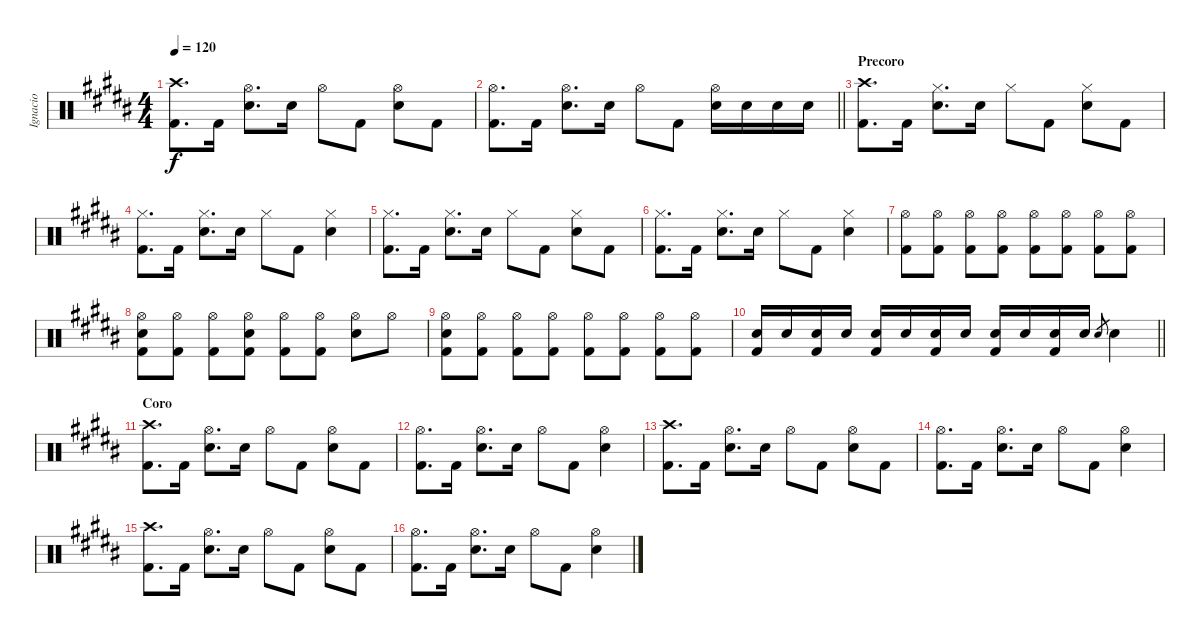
\track ("Ignacio" "Ignacio") {instrument percussion}
\staff {score}
\articulation defaults
\ts (4 4)
\tempo 120
\clef neutral
\ks b
("Crash high (hit)" "Kick (hit) 2").8{d dy f} "Kick (hit) 2".16 ("Hi-Hat (open)" "Snare (hit) 2").8{d} "Snare (hit) 2".16 "Hi-Hat (open)".8 "Kick (hit) 2".8 ("Hi-Hat (open)" "Snare (hit) 2").8 "Kick (hit) 2".8 |
\barLineRight lightlight
("Hi-Hat (open)" "Kick (hit) 2").8{d} "Kick (hit) 2".16 ("Hi-Hat (open)" "Snare (hit) 2").8{d} "Snare (hit) 2".16 "Hi-Hat (open)".8 "Kick (hit) 2".8 ("Hi-Hat (open)" "Snare (hit) 2").16 "Snare (hit) 2".16 "Snare (hit) 2".16 "Snare (hit) 2".16 |
\section ("" "Precoro")
("Crash high (hit)" "Kick (hit) 2").8{d} "Kick (hit) 2".16 ("Hi-Hat (closed)" "Snare (hit) 2").8{d} "Snare (hit) 2".16 "Hi-Hat (closed)".8 "Kick (hit) 2".8 ("Hi-Hat (closed)" "Snare (hit) 2").8 "Kick (hit) 2".8 |
("Hi-Hat (closed)" "Kick (hit) 2").8{d} "Kick (hit) 2".16 ("Hi-Hat (closed)" "Snare (hit) 2").8{d} "Snare (hit) 2".16 "Hi-Hat (closed)".8 "Kick (hit) 2".8 ("Hi-Hat (closed)" "Snare (hit) 2").4 |
("Hi-Hat (closed)" "Kick (hit) 2").8{d} "Kick (hit) 2".16 ("Hi-Hat (closed)" "Snare (hit) 2").8{d} "Snare (hit) 2".16 "Hi-Hat (closed)".8 "Kick (hit) 2".8 ("Hi-Hat (closed)" "Snare (hit) 2").8 "Kick (hit) 2".8 |
("Hi-Hat (closed)" "Kick (hit) 2").8{d} "Kick (hit) 2".16 ("Hi-Hat (closed)" "Snare (hit) 2").8{d} "Snare (hit) 2".16 "Hi-Hat (closed)".8 "Kick (hit) 2".8 ("Hi-Hat (closed)" "Snare (hit) 2").4 |
("Hi-Hat (open)" "Kick (hit) 2").8 ("Hi-Hat (open)" "Kick (hit) 2").8 ("Hi-Hat (open)" "Kick (hit) 2").8 ("Hi-Hat (open)" "Kick (hit) 2").8 ("Hi-Hat (open)" "Kick (hit) 2").8 ("Hi-Hat (open)" "Kick (hit) 2").8 ("Hi-Hat (open)" "Kick (hit) 2").8 ("Hi-Hat (open)" "Kick (hit) 2").8 |
("Hi-Hat (open)" "Snare (hit) 2" "Kick (hit) 2").8 ("Hi-Hat (open)" "Kick (hit) 2").8 ("Hi-Hat (open)" "Kick (hit) 2").8 ("Hi-Hat (open)" "Snare (hit) 2" "Kick (hit) 2").8 ("Hi-Hat (open)" "Kick (hit) 2").8 ("Hi-Hat (open)" "Kick (hit) 2").8 ("Hi-Hat (open)" "Snare (hit) 2").8 "Hi-Hat (open)".8 |
("Hi-Hat (open)" "Snare (hit) 2" "Kick (hit) 2").8 ("Hi-Hat (open)" "Kick (hit) 2").8 ("Hi-Hat (open)" "Kick (hit) 2").8 ("Hi-Hat (open)" "Kick (hit) 2").8 ("Hi-Hat (open)" "Kick (hit) 2").8 ("Hi-Hat (open)" "Kick (hit) 2").8 ("Hi-Hat (open)" "Kick (hit) 2").8 ("Hi-Hat (open)" "Kick (hit) 2").8 |
\barLineRight lightlight
("Snare (hit) 2" "Kick (hit) 2").16 "Snare (hit) 2".16 ("Snare (hit) 2" "Kick (hit) 2").16 "Snare (hit) 2".16 ("Snare (hit) 2" "Kick (hit) 2").16 "Snare (hit) 2".16 ("Snare (hit) 2" "Kick (hit) 2").16 "Snare (hit) 2".16 ("Snare (hit) 2" "Kick (hit) 2").16 "Snare (hit) 2".16 ("Snare (hit) 2" "Kick (hit) 2").16 "Snare (hit) 2".16 "Snare (hit) 2".8{gr} "Snare (hit) 2".4 |
\section ("" "Coro")
("Crash high (hit)" "Kick (hit) 2").8{d} "Kick (hit) 2".16 ("Hi-Hat (open)" "Snare (hit) 2").8{d} "Snare (hit) 2".16 "Hi-Hat (open)".8 "Kick (hit) 2".8 ("Hi-Hat (open)" "Snare (hit) 2").8 "Kick (hit) 2".8 |
("Hi-Hat (open)" "Kick (hit) 2").8{d} "Kick (hit) 2".16 ("Hi-Hat (open)" "Snare (hit) 2").8{d} "Snare (hit) 2".16 "Hi-Hat (open)".8 "Kick (hit) 2".8 ("Hi-Hat (open)" "Snare (hit) 2").4 |
("Crash high (hit)" "Kick (hit) 2").8{d} "Kick (hit) 2".16 ("Hi-Hat (open)" "Snare (hit) 2").8{d} "Snare (hit) 2".16 "Hi-Hat (open)".8 "Kick (hit) 2".8 ("Hi-Hat (open)" "Snare (hit) 2").8 "Kick (hit) 2".8 |
("Hi-Hat (open)" "Kick (hit) 2").8{d} "Kick (hit) 2".16 ("Hi-Hat (open)" "Snare (hit) 2").8{d} "Snare (hit) 2".16 "Hi-Hat (open)".8 "Kick (hit) 2".8 ("Hi-Hat (open)" "Snare (hit) 2").4 |
("Crash high (hit)" "Kick (hit) 2").8{d} "Kick (hit) 2".16 ("Hi-Hat (open)" "Snare (hit) 2").8{d} "Snare (hit) 2".16 "Hi-Hat (open)".8 "Kick (hit) 2".8 ("Hi-Hat (open)" "Snare (hit) 2").8 "Kick (hit) 2".8 |
("Hi-Hat (open)" "Kick (hit) 2").8{d} "Kick (hit) 2".16 ("Hi-Hat (open)" "Snare (hit) 2").8{d} "Snare (hit) 2".16 "Hi-Hat (open)".8 "Kick (hit) 2".8 ("Hi-Hat (open)" "Snare (hit) 2").4
